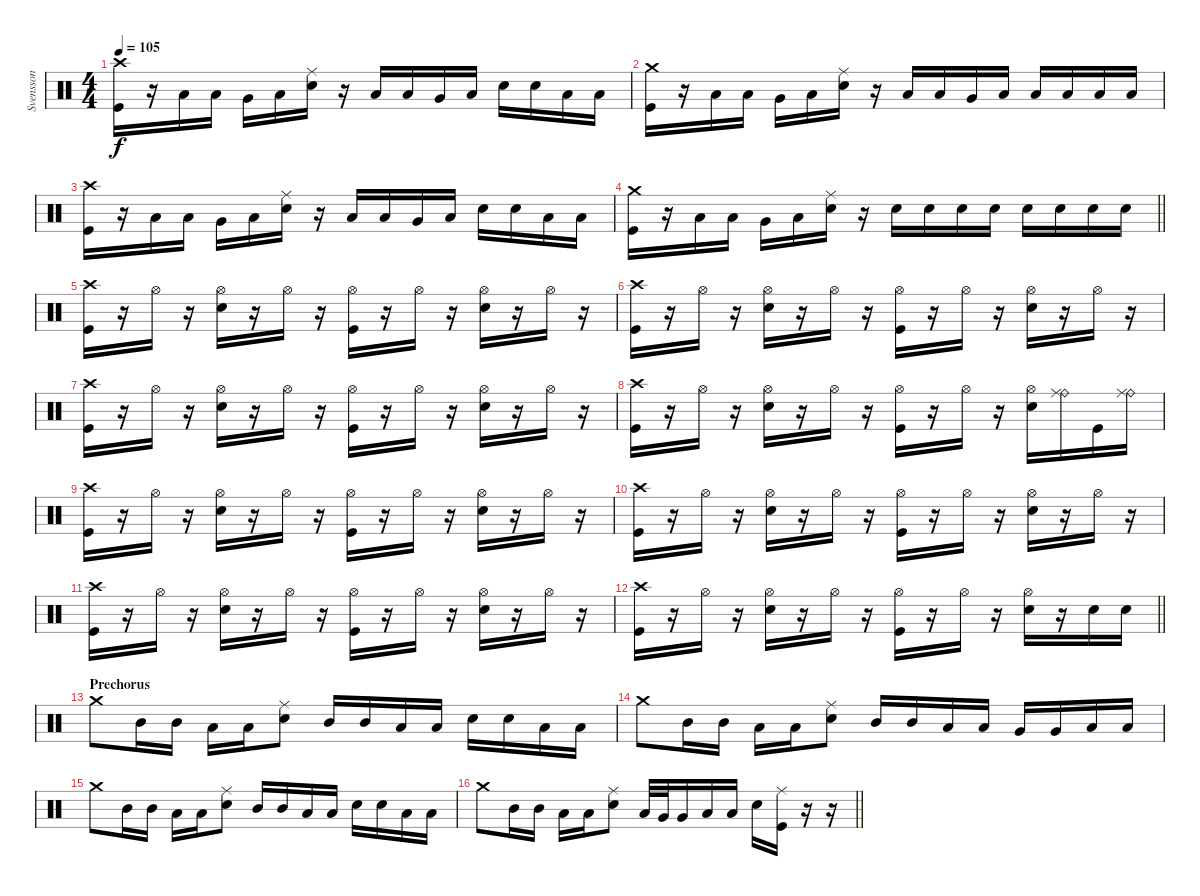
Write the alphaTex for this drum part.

\track ("Svensson" "Svensson") {instrument percussion}
\staff {score}
\articulation defaults
\ts (4 4)
\tempo 105
\clef neutral
\ks c
("Crash high (hit)" "Kick (hit)").16{dy f} r.16 "Low Tom (hit)".16 "Low Tom (hit)".16 "Very Low Tom (hit)".16 "Low Floor Tom (hit)".16 ("Ride (middle)" "Snare (hit) 2").16 r.16 "Low Tom (hit)".16 "Low Tom (hit)".16 "Very Low Tom (hit)".16 "Low Floor Tom (hit)".16 "Snare (hit) 2".16 "Snare (hit) 2".16 "Low Tom (hit)".16 "Low Tom (hit)".16 |
("Crash medium (hit)" "Kick (hit)").16 r.16 "Low Tom (hit)".16 "Low Tom (hit)".16 "Very Low Tom (hit)".16 "Low Floor Tom (hit)".16 ("Ride (middle)" "Snare (hit) 2").16 r.16 "Low Tom (hit)".16 "Low Tom (hit)".16 "Very Low Tom (hit)".16 "Low Floor Tom (hit)".16 "Low Tom (hit)".16 "Low Tom (hit)".16 "Low Tom (hit)".16 "Low Tom (hit)".16 |
("Crash high (hit)" "Kick (hit)").16 r.16 "Low Tom (hit)".16 "Low Tom (hit)".16 "Very Low Tom (hit)".16 "Low Floor Tom (hit)".16 ("Ride (middle)" "Snare (hit) 2").16 r.16 "Low Tom (hit)".16 "Low Tom (hit)".16 "Very Low Tom (hit)".16 "Low Floor Tom (hit)".16 "Snare (hit) 2".16 "Snare (hit) 2".16 "Low Tom (hit)".16 "Low Tom (hit)".16 |
\barLineRight lightlight
("Crash medium (hit)" "Kick (hit)").16 r.16 "Low Tom (hit)".16 "Low Tom (hit)".16 "Very Low Tom (hit)".16 "Low Floor Tom (hit)".16 ("Ride (middle)" "Snare (hit) 2").16 r.16 "Snare (hit) 2".16 "Snare (hit) 2".16 "Snare (hit) 2".16 "Snare (hit) 2".16 "Snare (hit) 2".16 "Snare (hit) 2".16 "Snare (hit) 2".16 "Snare (hit) 2".16 |
("Crash high (hit)" "Kick (hit)").16 r.16 "Hi-Hat (open)".16 r.16 ("Hi-Hat (open)" "Snare (hit) 2").16 r.16 "Hi-Hat (open)".16 r.16 ("Hi-Hat (open)" "Kick (hit)").16 r.16 "Hi-Hat (open)".16 r.16 ("Hi-Hat (open)" "Snare (hit) 2").16 r.16 "Hi-Hat (open)".16 r.16 |
("Crash high (hit)" "Kick (hit)").16 r.16 "Hi-Hat (open)".16 r.16 ("Hi-Hat (open)" "Snare (hit) 2").16 r.16 "Hi-Hat (open)".16 r.16 ("Hi-Hat (open)" "Kick (hit)").16 r.16 "Hi-Hat (open)".16 r.16 ("Hi-Hat (open)" "Snare (hit) 2").16 r.16 "Hi-Hat (open)".16 r.16 |
("Crash high (hit)" "Kick (hit)").16 r.16 "Hi-Hat (open)".16 r.16 ("Hi-Hat (open)" "Snare (hit) 2").16 r.16 "Hi-Hat (open)".16 r.16 ("Hi-Hat (open)" "Kick (hit)").16 r.16 "Hi-Hat (open)".16 r.16 ("Hi-Hat (open)" "Snare (hit) 2").16 r.16 "Hi-Hat (open)".16 r.16 |
("Crash high (hit)" "Kick (hit)").16 r.16 "Hi-Hat (open)".16 r.16 ("Hi-Hat (open)" "Snare (hit) 2").16 r.16 "Hi-Hat (open)".16 r.16 ("Hi-Hat (open)" "Kick (hit)").16 r.16 "Hi-Hat (open)".16 r.16 ("Hi-Hat (open)" "Snare (hit) 2").16 ("Ride (bell)" "Ride (middle)").16 "Kick (hit)".16 ("Ride (bell)" "Ride (middle)").16 |
("Crash high (hit)" "Kick (hit)").16 r.16 "Hi-Hat (open)".16 r.16 ("Hi-Hat (open)" "Snare (hit) 2").16 r.16 "Hi-Hat (open)".16 r.16 ("Hi-Hat (open)" "Kick (hit)").16 r.16 "Hi-Hat (open)".16 r.16 ("Hi-Hat (open)" "Snare (hit) 2").16 r.16 "Hi-Hat (open)".16 r.16 |
("Crash high (hit)" "Kick (hit)").16 r.16 "Hi-Hat (open)".16 r.16 ("Hi-Hat (open)" "Snare (hit) 2").16 r.16 "Hi-Hat (open)".16 r.16 ("Hi-Hat (open)" "Kick (hit)").16 r.16 "Hi-Hat (open)".16 r.16 ("Hi-Hat (open)" "Snare (hit) 2").16 r.16 "Hi-Hat (open)".16 r.16 |
("Crash high (hit)" "Kick (hit)").16 r.16 "Hi-Hat (open)".16 r.16 ("Hi-Hat (open)" "Snare (hit) 2").16 r.16 "Hi-Hat (open)".16 r.16 ("Hi-Hat (open)" "Kick (hit)").16 r.16 "Hi-Hat (open)".16 r.16 ("Hi-Hat (open)" "Snare (hit) 2").16 r.16 "Hi-Hat (open)".16 r.16 |
\barLineRight lightlight
("Crash high (hit)" "Kick (hit)").16 r.16 "Hi-Hat (open)".16 r.16 ("Hi-Hat (open)" "Snare (hit) 2").16 r.16 "Hi-Hat (open)".16 r.16 ("Hi-Hat (open)" "Kick (hit)").16 r.16 "Hi-Hat (open)".16 r.16 ("Hi-Hat (open)" "Snare (hit) 2").16 r.16 "Snare (hit) 2".16 "Snare (hit) 2".16 |
\section ("" "Prechorus")
"Crash medium (hit)".8 "Mid Tom (hit)".16 "Mid Tom (hit)".16 "Low Tom (hit)".16 "Low Tom (hit)".16 ("Ride (middle)" "Snare (hit) 2").8 "Mid Tom (hit)".16 "Mid Tom (hit)".16 "Low Tom (hit)".16 "Low Tom (hit)".16 "Snare (hit) 2".16 "Snare (hit) 2".16 "Low Tom (hit)".16 "Low Tom (hit)".16 |
"Crash medium (hit)".8 "Mid Tom (hit)".16 "Mid Tom (hit)".16 "Low Tom (hit)".16 "Low Tom (hit)".16 ("Ride (middle)" "Snare (hit) 2").8 "Mid Tom (hit)".16 "Mid Tom (hit)".16 "Low Tom (hit)".16 "Low Tom (hit)".16 "Very Low Tom (hit)".16 "Very Low Tom (hit)".16 "Low Tom (hit)".16 "Low Tom (hit)".16 |
"Crash medium (hit)".8 "Mid Tom (hit)".16 "Mid Tom (hit)".16 "Low Tom (hit)".16 "Low Tom (hit)".16 ("Ride (middle)" "Snare (hit) 2").8 "Mid Tom (hit)".16 "Mid Tom (hit)".16 "Low Tom (hit)".16 "Low Tom (hit)".16 "Snare (hit) 2".16 "Snare (hit) 2".16 "Low Tom (hit)".16 "Low Tom (hit)".16 |
\barLineRight lightlight "Crash medium (hit)".8 "Mid Tom (hit)".16 "Mid Tom (hit)".16 "Low Tom (hit)".16 "Low Tom (hit)".16
("Ride (middle)" "Snare (hit) 2").8 "Low Tom (hit)".32 "Very Low Tom (hit)".32 "Very Low Tom (hit)".16 "Low Tom (hit)".16 "Low Tom (hit)".16 "Snare (hit) 2".16 ("Ride (middle)" "Kick (hit)").16 r.16 r.16
